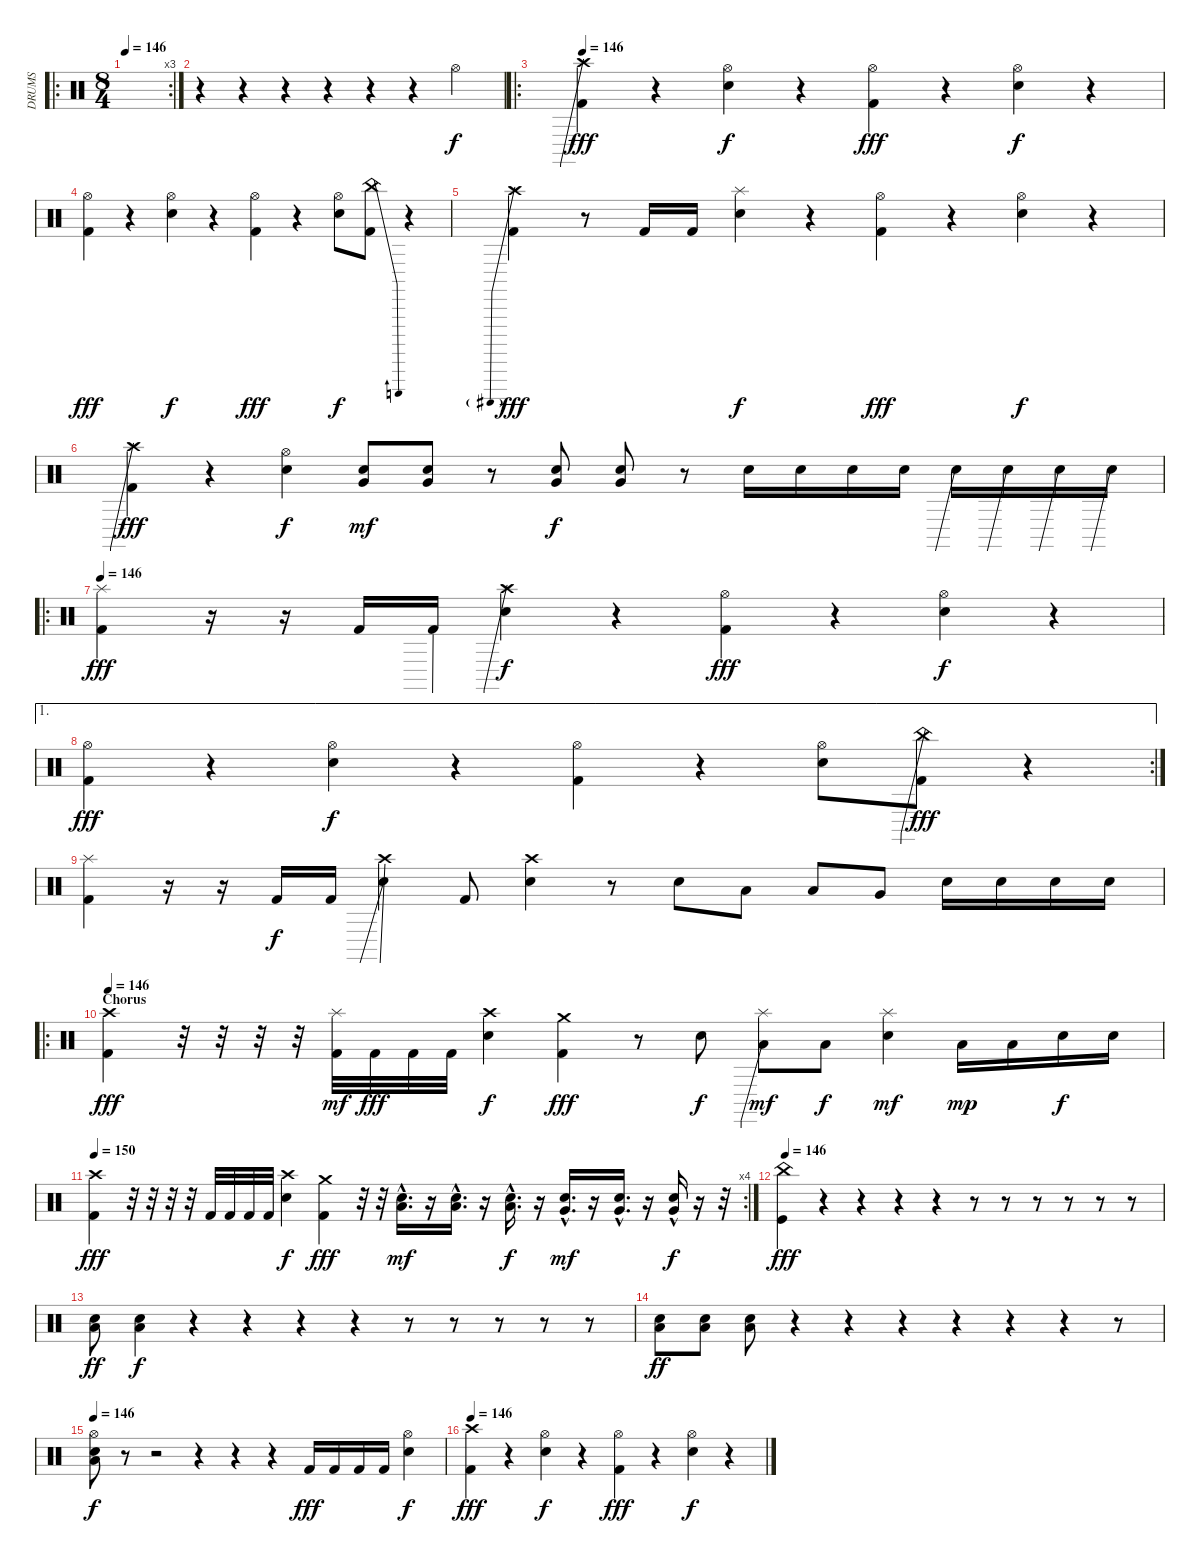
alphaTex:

\track ("DRUMS" "DRUMS") {instrument percussion}
\staff {score}
\articulation defaults
\ro
\rc 3
\ts (8 4)
\tempo 146
\tempo 150
\tempo 146
\clef neutral
\ks c
|
r.4 r.4 r.4 r.4 r.4 r.4 "Hi-Hat (open)".2 |
\ro
\tempo 146
("Crash high (hit)"{be (prebend 0 8 60 8)} "Kick (hit) 2").4{dy fff} r.4 ("Hi-Hat (open)" "Snare (hit) 2").4{dy f} r.4 ("Hi-Hat (open)" "Kick (hit) 2").4{dy fff} r.4 ("Hi-Hat (open)" "Snare (hit) 2").4{dy f} r.4 |
("Hi-Hat (open)" "Kick (hit) 2").4{dy fff} r.4 ("Hi-Hat (open)" "Snare (hit) 2").4{dy f} r.4 ("Hi-Hat (open)" "Kick (hit) 2").4{dy fff} r.4 ("Hi-Hat (open)" "Snare (hit) 2").8{dy f} ("China (hit)"{be (bend 0 0 60 1)} "Kick (hit) 2").8 r.4 |
("Crash high (hit)"{be (prebend 0 8 60 8)} "Kick (hit) 2").4{dy fff} r.8 "Kick (hit) 2".16 "Kick (hit) 2".16 ("Splash (hit)" "Snare (hit) 2").4{dy f} r.4 ("Hi-Hat (open)" "Kick (hit) 2").4{dy fff} r.4 ("Hi-Hat (open)" "Snare (hit) 2").4{dy f} r.4 |
("Crash high (hit)"{be (prebend 0 8 60 8)} "Kick (hit) 2").4{dy fff} r.4 ("Hi-Hat (open)" "Snare (hit) 2").4{dy f} ("Very Low Tom (hit)" "Snare (hit) 2").8{dy mf} ("Very Low Tom (hit)" "Snare (hit) 2").8 r.8 ("Very Low Tom (hit)" "Snare (hit) 2").8{dy f} ("Very Low Tom (hit)" "Snare (hit) 2").8 r.8 "Snare (hit) 2".16 "Snare (hit) 2".16 "Snare (hit) 2".16 "Snare (hit) 2".16 "Snare (hit) 2"{be (prebend 0 2 60 2)}.16 "Snare (hit) 2"{be (prebend 0 4 60 4)}.16 "Snare (hit) 2"{be (prebend 0 2 60 2)}.16 "Snare (hit) 2"{be (prebend 0 1 60 1)}.16 |
\ro
\tempo 146
("Splash (hit)" "Kick (hit) 2").4{dy fff} r.16 r.16 "Kick (hit) 2".16 "Kick (hit) 2"{be (prebend 0 4 60 4)}.16 ("Crash high (hit)"{be (prebend 0 8 60 8)} "Snare (hit) 2"{be (hold 0 0 60 0)}).4{dy f} r.4 ("Hi-Hat (open)" "Kick (hit) 2").4{dy fff} r.4 ("Hi-Hat (open)" "Snare (hit) 2").4{dy f} r.4 |
\ae 1
\rc 2
("Hi-Hat (open)" "Kick (hit) 2").4{dy fff} r.4 ("Hi-Hat (open)" "Snare (hit) 2").4{dy f} r.4 ("Hi-Hat (open)" "Kick (hit) 2").4 r.4 ("Hi-Hat (open)" "Snare (hit) 2").8 ("China (hit)"{be (prebend 0 2 60 2)} "Kick (hit) 2").8{dy fff} r.4 |
("Splash (hit)" "Kick (hit) 2").4 r.16 r.16 "Kick (hit) 2".16{dy f} "Kick (hit) 2".16 ("Crash high (hit)"{be (prebend 0 8 60 8)} "Snare (hit) 2"{be (prebend 0 4 60 4)}).4 "Kick (hit) 2".8 ("Crash high (hit)" "Snare (hit) 2").4 r.8 "Snare (hit) 2".8 "Low Tom (hit)".8 "Low Tom (hit)".8 "Very Low Tom (hit)".8 "Snare (hit) 2".16 "Snare (hit) 2".16 "Snare (hit) 2".16 "Snare (hit) 2".16 |
\ro
\section ("" "Chorus")
\tempo 146
("Crash high (hit)" "Kick (hit) 2").4{dy fff} r.32 r.32 r.32 r.32 ("Splash (hit)" "Kick (hit) 2").32{dy mf} "Kick (hit) 2".32{dy fff} "Kick (hit) 2".32 "Kick (hit) 2".32 ("Crash high (hit)" "Snare (hit) 2").4{dy f} ("Crash medium (hit)" "Kick (hit) 2").4{dy fff} r.8 "Snare (hit) 2".8{dy f} ("Splash (hit)" "Low Tom (hit)"{be (prebend 0 8 60 8)}).8{dy mf} "Low Tom (hit)".8{dy f} ("Splash (hit)" "Snare (hit) 2").4{dy mf} "Low Tom (hit)".16{dy mp} "Low Tom (hit)".16 "Snare (hit) 2".16{dy f} "Snare (hit) 2".16 |
\rc 4
\tempo 150
("Crash high (hit)" "Kick (hit) 2").4{dy fff} r.32 r.32 r.32 r.32 "Kick (hit) 2".32 "Kick (hit) 2".32 "Kick (hit) 2".32 "Kick (hit) 2".32 ("Crash high (hit)" "Snare (hit) 2").4{dy f} ("Crash medium (hit)" "Kick (hit) 2").4{dy fff} r.32 r.32 ("Low Tom (hit)"{hac} "Snare (hit) 2"{hac}).16{d dy mf} r.16 ("Low Tom (hit)"{hac} "Snare (hit) 2"{hac}).16{d} r.16 ("Low Tom (hit)"{hac} "Snare (hit) 2"{hac}).16{d dy f} r.16 ("Very Low Tom (hit)"{hac} "Snare (hit) 2"{hac}).16{d dy mf} r.16 ("Very Low Tom (hit)"{hac} "Snare (hit) 2"{hac}).16{d} r.16 ("Very Low Tom (hit)" "Snare (hit) 2"{hac}).16{dy f} r.16 r.32 |
\tempo 146
("China (hit)" "Kick (hit)").4{dy fff} r.4 r.4 r.4 r.4 r.8 r.8 r.8 r.8 r.8 r.8 |
("Low Tom (hit)" "Snare (hit) 2").8{dy ff} ("Low Tom (hit)" "Snare (hit) 2").4{dy f} r.4 r.4 r.4 r.4 r.8 r.8 r.8 r.8 r.8 |
("Low Tom (hit)" "Snare (hit) 2").8{dy ff} ("Low Tom (hit)" "Snare (hit) 2").8 ("Low Tom (hit)" "Snare (hit) 2").8 r.4 r.4 r.4 r.4 r.4 r.4 r.8 |
\tempo 146
("Hi-Hat (open)" "Low Tom (hit)" "Snare (hit) 2").8{dy f} r.8 r.2 r.4 r.4 r.4 "Kick (hit) 2".16{dy fff} "Kick (hit) 2".16 "Kick (hit) 2".16 "Kick (hit) 2".16 ("Hi-Hat (open)" "Snare (hit) 2").4{dy f} |
\tempo 146
("Crash high (hit)" "Kick (hit) 2").4{dy fff} r.4 ("Hi-Hat (open)" "Snare (hit) 2").4{dy f} r.4 ("Hi-Hat (open)" "Kick (hit) 2").4{dy fff} r.4 ("Hi-Hat (open)" "Snare (hit) 2").4{dy f} r.4
